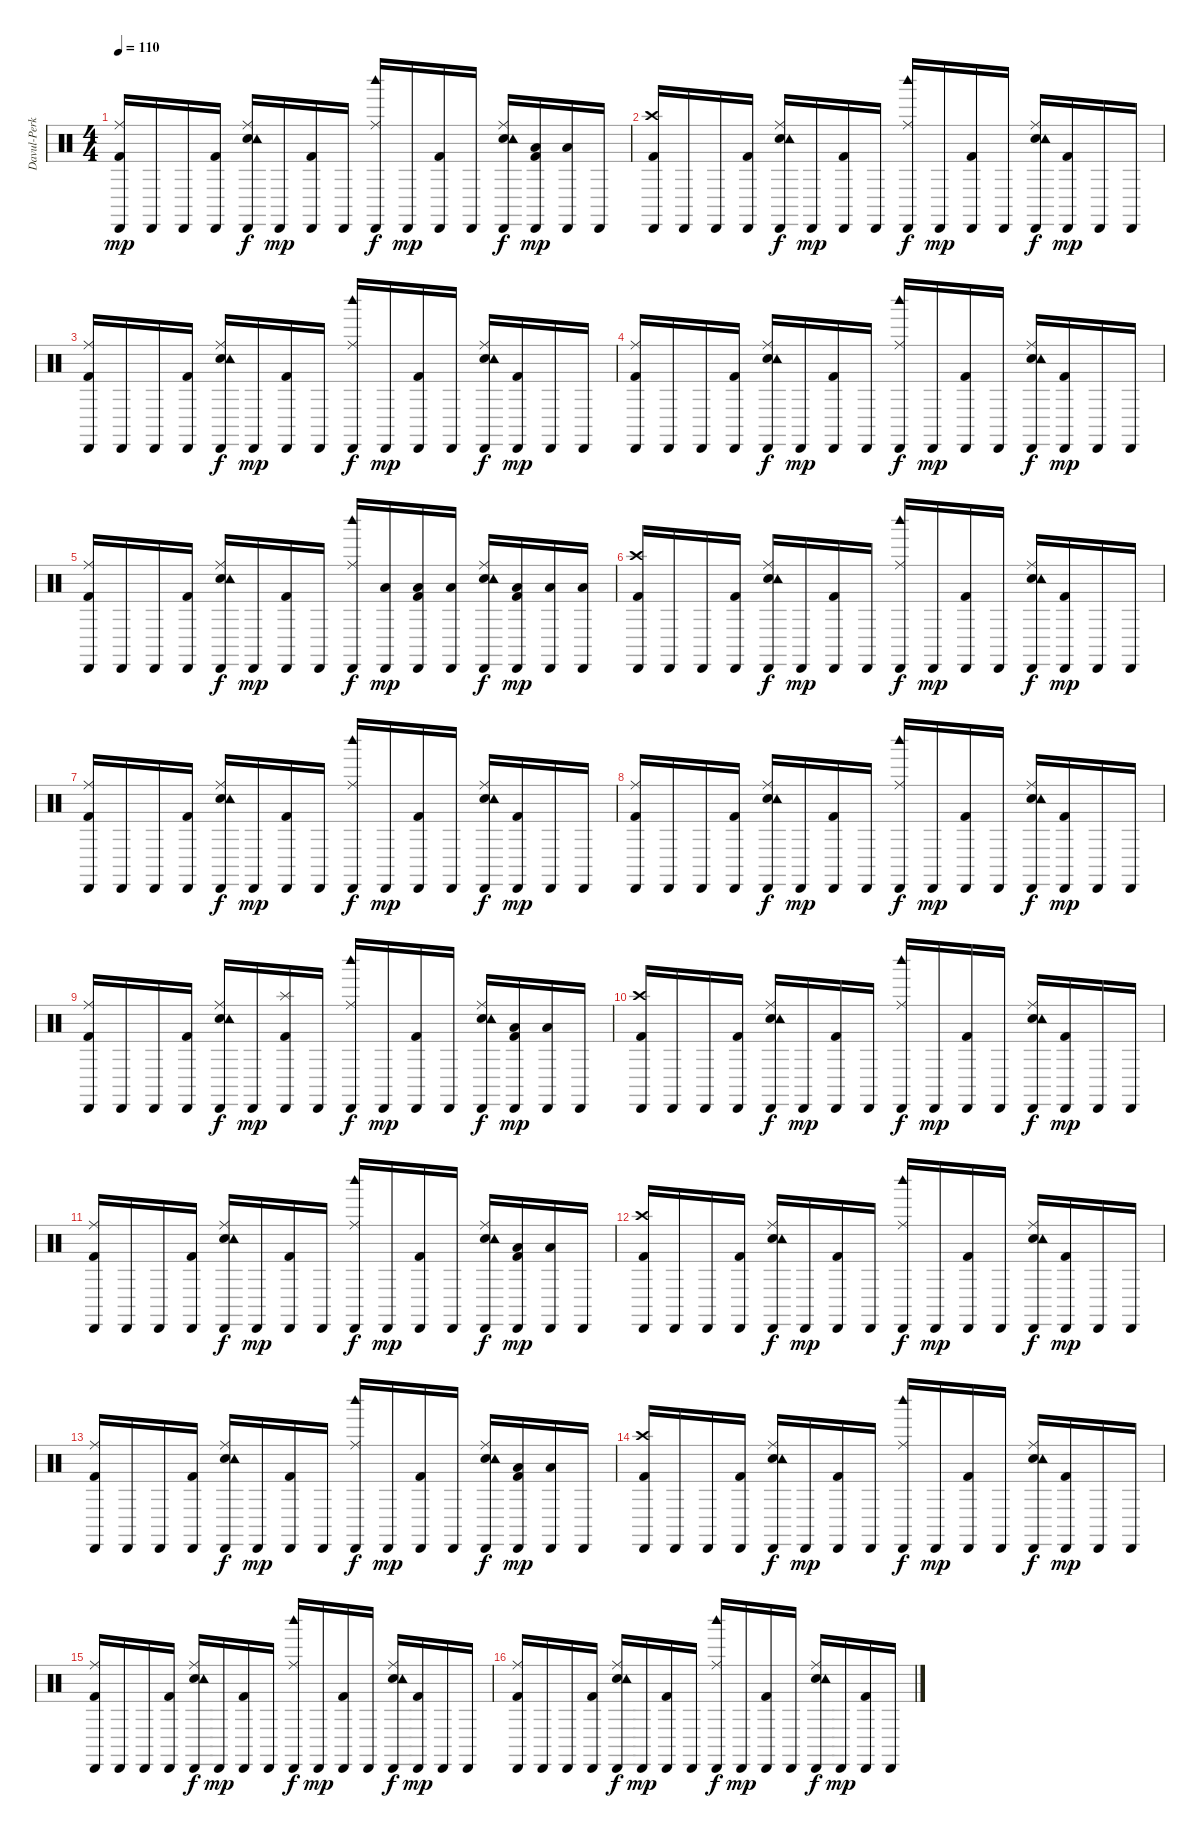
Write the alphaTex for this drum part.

\track ("Davul-Perküsyon" "Davul-Perk") {instrument percussion}
\staff {score}
\articulation defaults
\ts (4 4)
\tempo 110
\clef neutral
\ks c
("Ride (middle)" "Cabasa (hit)" "Kick (hit) 2").16{dy mp} "Cabasa (hit)".16 "Cabasa (hit)".16 ("Cabasa (hit)" "Kick (hit) 2").16 ("Electric Snare (hit)" "Ride (middle)" "Tambourine (hit)" "Cabasa (hit)").16{dy f} "Cabasa (hit)".16{dy mp} ("Cabasa (hit)" "Kick (hit) 2").16 "Cabasa (hit)".16 ("Ride (middle)" "Woodblock high (hit)" "Cabasa (hit)").16{dy f} "Cabasa (hit)".16{dy mp} ("Cabasa (hit)" "Kick (hit) 2").16 "Cabasa (hit)".16 ("Electric Snare (hit)" "Ride (middle)" "Tambourine (hit)" "Cabasa (hit)").16{dy f} ("Low Tom (hit)" "Cabasa (hit)" "Kick (hit) 2").16{dy mp} ("Low Tom (hit)" "Cabasa (hit)").16 "Cabasa (hit)".16 |
("Crash high (hit)" "Cabasa (hit)" "Kick (hit) 2").16 "Cabasa (hit)".16 "Cabasa (hit)".16 ("Cabasa (hit)" "Kick (hit) 2").16 ("Electric Snare (hit)" "Ride (middle)" "Tambourine (hit)" "Cabasa (hit)").16{dy f} "Cabasa (hit)".16{dy mp} ("Cabasa (hit)" "Kick (hit) 2").16 "Cabasa (hit)".16 ("Ride (middle)" "Woodblock high (hit)" "Cabasa (hit)").16{dy f} "Cabasa (hit)".16{dy mp} ("Cabasa (hit)" "Kick (hit) 2").16 "Cabasa (hit)".16 ("Electric Snare (hit)" "Ride (middle)" "Tambourine (hit)" "Cabasa (hit)").16{dy f} ("Cabasa (hit)" "Kick (hit) 2").16{dy mp} "Cabasa (hit)".16 "Cabasa (hit)".16 |
("Ride (middle)" "Cabasa (hit)" "Kick (hit) 2").16 "Cabasa (hit)".16 "Cabasa (hit)".16 ("Cabasa (hit)" "Kick (hit) 2").16 ("Electric Snare (hit)" "Ride (middle)" "Tambourine (hit)" "Cabasa (hit)").16{dy f} "Cabasa (hit)".16{dy mp} ("Cabasa (hit)" "Kick (hit) 2").16 "Cabasa (hit)".16 ("Ride (middle)" "Woodblock high (hit)" "Cabasa (hit)").16{dy f} "Cabasa (hit)".16{dy mp} ("Cabasa (hit)" "Kick (hit) 2").16 "Cabasa (hit)".16 ("Electric Snare (hit)" "Ride (middle)" "Tambourine (hit)" "Cabasa (hit)").16{dy f} ("Cabasa (hit)" "Kick (hit) 2").16{dy mp} "Cabasa (hit)".16 "Cabasa (hit)".16 |
("Ride (middle)" "Cabasa (hit)" "Kick (hit) 2").16 "Cabasa (hit)".16 "Cabasa (hit)".16 ("Cabasa (hit)" "Kick (hit) 2").16 ("Electric Snare (hit)" "Ride (middle)" "Tambourine (hit)" "Cabasa (hit)").16{dy f} "Cabasa (hit)".16{dy mp} ("Cabasa (hit)" "Kick (hit) 2").16 "Cabasa (hit)".16 ("Ride (middle)" "Woodblock high (hit)" "Cabasa (hit)").16{dy f} "Cabasa (hit)".16{dy mp} ("Cabasa (hit)" "Kick (hit) 2").16 "Cabasa (hit)".16 ("Electric Snare (hit)" "Ride (middle)" "Tambourine (hit)" "Cabasa (hit)").16{dy f} ("Cabasa (hit)" "Kick (hit) 2").16{dy mp} "Cabasa (hit)".16 "Cabasa (hit)".16 |
("Ride (middle)" "Cabasa (hit)" "Kick (hit) 2").16 "Cabasa (hit)".16 "Cabasa (hit)".16 ("Cabasa (hit)" "Kick (hit) 2").16 ("Electric Snare (hit)" "Ride (middle)" "Tambourine (hit)" "Cabasa (hit)").16{dy f} "Cabasa (hit)".16{dy mp} ("Cabasa (hit)" "Kick (hit) 2").16 "Cabasa (hit)".16 ("Ride (middle)" "Woodblock high (hit)" "Cabasa (hit)").16{dy f} ("Low Tom (hit)" "Cabasa (hit)").16{dy mp} ("Low Tom (hit)" "Cabasa (hit)" "Kick (hit) 2").16 ("Low Tom (hit)" "Cabasa (hit)").16 ("Electric Snare (hit)" "Ride (middle)" "Tambourine (hit)" "Cabasa (hit)").16{dy f} ("Low Tom (hit)" "Cabasa (hit)" "Kick (hit) 2").16{dy mp} ("Low Tom (hit)" "Cabasa (hit)").16 ("Low Tom (hit)" "Cabasa (hit)").16 |
("Crash high (hit)" "Cabasa (hit)" "Kick (hit) 2").16 "Cabasa (hit)".16 "Cabasa (hit)".16 ("Cabasa (hit)" "Kick (hit) 2").16 ("Electric Snare (hit)" "Ride (middle)" "Tambourine (hit)" "Cabasa (hit)").16{dy f} "Cabasa (hit)".16{dy mp} ("Cabasa (hit)" "Kick (hit) 2").16 "Cabasa (hit)".16 ("Ride (middle)" "Woodblock high (hit)" "Cabasa (hit)").16{dy f} "Cabasa (hit)".16{dy mp} ("Cabasa (hit)" "Kick (hit) 2").16 "Cabasa (hit)".16 ("Electric Snare (hit)" "Ride (middle)" "Tambourine (hit)" "Cabasa (hit)").16{dy f} ("Cabasa (hit)" "Kick (hit) 2").16{dy mp} "Cabasa (hit)".16 "Cabasa (hit)".16 |
("Ride (middle)" "Cabasa (hit)" "Kick (hit) 2").16 "Cabasa (hit)".16 "Cabasa (hit)".16 ("Cabasa (hit)" "Kick (hit) 2").16 ("Electric Snare (hit)" "Ride (middle)" "Tambourine (hit)" "Cabasa (hit)").16{dy f} "Cabasa (hit)".16{dy mp} ("Cabasa (hit)" "Kick (hit) 2").16 "Cabasa (hit)".16 ("Ride (middle)" "Woodblock high (hit)" "Cabasa (hit)").16{dy f} "Cabasa (hit)".16{dy mp} ("Cabasa (hit)" "Kick (hit) 2").16 "Cabasa (hit)".16 ("Electric Snare (hit)" "Ride (middle)" "Tambourine (hit)" "Cabasa (hit)").16{dy f} ("Cabasa (hit)" "Kick (hit) 2").16{dy mp} "Cabasa (hit)".16 "Cabasa (hit)".16 |
("Ride (middle)" "Cabasa (hit)" "Kick (hit) 2").16 "Cabasa (hit)".16 "Cabasa (hit)".16 ("Cabasa (hit)" "Kick (hit) 2").16 ("Electric Snare (hit)" "Ride (middle)" "Tambourine (hit)" "Cabasa (hit)").16{dy f} "Cabasa (hit)".16{dy mp} ("Cabasa (hit)" "Kick (hit) 2").16 "Cabasa (hit)".16 ("Ride (middle)" "Woodblock high (hit)" "Cabasa (hit)").16{dy f} "Cabasa (hit)".16{dy mp} ("Cabasa (hit)" "Kick (hit) 2").16 "Cabasa (hit)".16 ("Electric Snare (hit)" "Ride (middle)" "Tambourine (hit)" "Cabasa (hit)").16{dy f} ("Cabasa (hit)" "Kick (hit) 2").16{dy mp} "Cabasa (hit)".16 "Cabasa (hit)".16 |
("Ride (middle)" "Cabasa (hit)" "Kick (hit) 2").16 "Cabasa (hit)".16 "Cabasa (hit)".16 ("Cabasa (hit)" "Kick (hit) 2").16 ("Electric Snare (hit)" "Ride (middle)" "Tambourine (hit)" "Cabasa (hit)").16{dy f} "Cabasa (hit)".16{dy mp} ("Splash (hit)" "Cabasa (hit)" "Kick (hit) 2").16 "Cabasa (hit)".16 ("Ride (middle)" "Woodblock high (hit)" "Cabasa (hit)").16{dy f} "Cabasa (hit)".16{dy mp} ("Cabasa (hit)" "Kick (hit) 2").16 "Cabasa (hit)".16 ("Electric Snare (hit)" "Ride (middle)" "Tambourine (hit)" "Cabasa (hit)").16{dy f} ("Low Tom (hit)" "Cabasa (hit)" "Kick (hit) 2").16{dy mp} ("Low Tom (hit)" "Cabasa (hit)").16 "Cabasa (hit)".16 |
("Crash high (hit)" "Cabasa (hit)" "Kick (hit) 2").16 "Cabasa (hit)".16 "Cabasa (hit)".16 ("Cabasa (hit)" "Kick (hit) 2").16 ("Electric Snare (hit)" "Ride (middle)" "Tambourine (hit)" "Cabasa (hit)").16{dy f} "Cabasa (hit)".16{dy mp} ("Cabasa (hit)" "Kick (hit) 2").16 "Cabasa (hit)".16 ("Ride (middle)" "Woodblock high (hit)" "Cabasa (hit)").16{dy f} "Cabasa (hit)".16{dy mp} ("Cabasa (hit)" "Kick (hit) 2").16 "Cabasa (hit)".16 ("Electric Snare (hit)" "Ride (middle)" "Tambourine (hit)" "Cabasa (hit)").16{dy f} ("Cabasa (hit)" "Kick (hit) 2").16{dy mp} "Cabasa (hit)".16 "Cabasa (hit)".16 |
("Ride (middle)" "Cabasa (hit)" "Kick (hit) 2").16 "Cabasa (hit)".16 "Cabasa (hit)".16 ("Cabasa (hit)" "Kick (hit) 2").16 ("Electric Snare (hit)" "Ride (middle)" "Tambourine (hit)" "Cabasa (hit)").16{dy f} "Cabasa (hit)".16{dy mp} ("Cabasa (hit)" "Kick (hit) 2").16 "Cabasa (hit)".16 ("Ride (middle)" "Woodblock high (hit)" "Cabasa (hit)").16{dy f} "Cabasa (hit)".16{dy mp} ("Cabasa (hit)" "Kick (hit) 2").16 "Cabasa (hit)".16 ("Electric Snare (hit)" "Ride (middle)" "Tambourine (hit)" "Cabasa (hit)").16{dy f} ("Low Tom (hit)" "Cabasa (hit)" "Kick (hit) 2").16{dy mp} ("Low Tom (hit)" "Cabasa (hit)").16 "Cabasa (hit)".16 |
("Crash high (hit)" "Cabasa (hit)" "Kick (hit) 2").16 "Cabasa (hit)".16 "Cabasa (hit)".16 ("Cabasa (hit)" "Kick (hit) 2").16 ("Electric Snare (hit)" "Ride (middle)" "Tambourine (hit)" "Cabasa (hit)").16{dy f} "Cabasa (hit)".16{dy mp} ("Cabasa (hit)" "Kick (hit) 2").16 "Cabasa (hit)".16 ("Ride (middle)" "Woodblock high (hit)" "Cabasa (hit)").16{dy f} "Cabasa (hit)".16{dy mp} ("Cabasa (hit)" "Kick (hit) 2").16 "Cabasa (hit)".16 ("Electric Snare (hit)" "Ride (middle)" "Tambourine (hit)" "Cabasa (hit)").16{dy f} ("Cabasa (hit)" "Kick (hit) 2").16{dy mp} "Cabasa (hit)".16 "Cabasa (hit)".16 |
("Ride (middle)" "Cabasa (hit)" "Kick (hit) 2").16 "Cabasa (hit)".16 "Cabasa (hit)".16 ("Cabasa (hit)" "Kick (hit) 2").16 ("Electric Snare (hit)" "Ride (middle)" "Tambourine (hit)" "Cabasa (hit)").16{dy f} "Cabasa (hit)".16{dy mp} ("Cabasa (hit)" "Kick (hit) 2").16 "Cabasa (hit)".16 ("Ride (middle)" "Woodblock high (hit)" "Cabasa (hit)").16{dy f} "Cabasa (hit)".16{dy mp} ("Cabasa (hit)" "Kick (hit) 2").16 "Cabasa (hit)".16 ("Electric Snare (hit)" "Ride (middle)" "Tambourine (hit)" "Cabasa (hit)").16{dy f} ("Low Tom (hit)" "Cabasa (hit)" "Kick (hit) 2").16{dy mp} ("Low Tom (hit)" "Cabasa (hit)").16 "Cabasa (hit)".16 |
("Crash high (hit)" "Cabasa (hit)" "Kick (hit) 2").16 "Cabasa (hit)".16 "Cabasa (hit)".16 ("Cabasa (hit)" "Kick (hit) 2").16 ("Electric Snare (hit)" "Ride (middle)" "Tambourine (hit)" "Cabasa (hit)").16{dy f} "Cabasa (hit)".16{dy mp} ("Cabasa (hit)" "Kick (hit) 2").16 "Cabasa (hit)".16 ("Ride (middle)" "Woodblock high (hit)" "Cabasa (hit)").16{dy f} "Cabasa (hit)".16{dy mp} ("Cabasa (hit)" "Kick (hit) 2").16 "Cabasa (hit)".16 ("Electric Snare (hit)" "Ride (middle)" "Tambourine (hit)" "Cabasa (hit)").16{dy f} ("Cabasa (hit)" "Kick (hit) 2").16{dy mp} "Cabasa (hit)".16 "Cabasa (hit)".16 |
("Ride (middle)" "Cabasa (hit)" "Kick (hit) 2").16 "Cabasa (hit)".16 "Cabasa (hit)".16 ("Cabasa (hit)" "Kick (hit) 2").16 ("Electric Snare (hit)" "Ride (middle)" "Tambourine (hit)" "Cabasa (hit)").16{dy f} "Cabasa (hit)".16{dy mp} ("Cabasa (hit)" "Kick (hit) 2").16 "Cabasa (hit)".16 ("Ride (middle)" "Woodblock high (hit)" "Cabasa (hit)").16{dy f} "Cabasa (hit)".16{dy mp} ("Cabasa (hit)" "Kick (hit) 2").16 "Cabasa (hit)".16 ("Electric Snare (hit)" "Ride (middle)" "Tambourine (hit)" "Cabasa (hit)").16{dy f} ("Cabasa (hit)" "Kick (hit) 2").16{dy mp} "Cabasa (hit)".16 "Cabasa (hit)".16 |
("Ride (middle)" "Cabasa (hit)" "Kick (hit) 2").16 "Cabasa (hit)".16 "Cabasa (hit)".16 ("Cabasa (hit)" "Kick (hit) 2").16 ("Electric Snare (hit)" "Ride (middle)" "Tambourine (hit)" "Cabasa (hit)").16{dy f} "Cabasa (hit)".16{dy mp} ("Cabasa (hit)" "Kick (hit) 2").16 "Cabasa (hit)".16 ("Ride (middle)" "Woodblock high (hit)" "Cabasa (hit)").16{dy f} "Cabasa (hit)".16{dy mp} ("Cabasa (hit)" "Kick (hit) 2").16 "Cabasa (hit)".16 ("Electric Snare (hit)" "Ride (middle)" "Tambourine (hit)" "Cabasa (hit)").16{dy f} "Cabasa (hit)".16{dy mp} ("Cabasa (hit)" "Kick (hit) 2").16 "Cabasa (hit)".16
